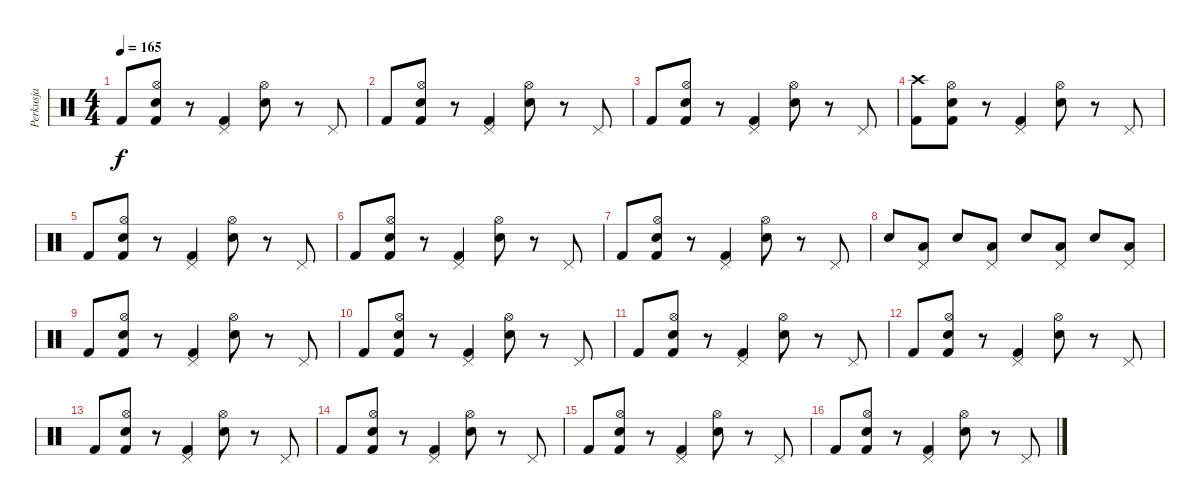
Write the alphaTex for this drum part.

\track ("Perkusja" "Perkusja") {instrument percussion}
\staff {score}
\articulation defaults
\ts (4 4)
\tempo 165
\clef neutral
\ks c "Kick (hit) 2".8{dy f}
("Hi-Hat (open)" "Electric Snare (hit)" "Kick (hit) 2").8 r.8 ("Pedal Hi-Hat (hit)" "Kick (hit) 2").4 ("Hi-Hat (open)" "Electric Snare (hit)").8 r.8 "Pedal Hi-Hat (hit)".8 |
"Kick (hit) 2".8 ("Hi-Hat (open)" "Electric Snare (hit)" "Kick (hit) 2").8 r.8 ("Pedal Hi-Hat (hit)" "Kick (hit) 2").4 ("Hi-Hat (open)" "Electric Snare (hit)").8 r.8 "Pedal Hi-Hat (hit)".8 |
"Kick (hit) 2".8 ("Hi-Hat (open)" "Electric Snare (hit)" "Kick (hit) 2").8 r.8 ("Pedal Hi-Hat (hit)" "Kick (hit) 2").4 ("Hi-Hat (open)" "Electric Snare (hit)").8 r.8 "Pedal Hi-Hat (hit)".8 |
("Crash high (hit)" "Kick (hit) 2").8 ("Hi-Hat (open)" "Electric Snare (hit)" "Kick (hit) 2").8 r.8 ("Pedal Hi-Hat (hit)" "Kick (hit) 2").4 ("Hi-Hat (open)" "Electric Snare (hit)").8 r.8 "Pedal Hi-Hat (hit)".8 |
"Kick (hit) 2".8 ("Hi-Hat (open)" "Electric Snare (hit)" "Kick (hit) 2").8 r.8 ("Pedal Hi-Hat (hit)" "Kick (hit) 2").4 ("Hi-Hat (open)" "Electric Snare (hit)").8 r.8 "Pedal Hi-Hat (hit)".8 |
"Kick (hit) 2".8 ("Hi-Hat (open)" "Electric Snare (hit)" "Kick (hit) 2").8 r.8 ("Pedal Hi-Hat (hit)" "Kick (hit) 2").4 ("Hi-Hat (open)" "Electric Snare (hit)").8 r.8 "Pedal Hi-Hat (hit)".8 |
"Kick (hit) 2".8 ("Hi-Hat (open)" "Electric Snare (hit)" "Kick (hit) 2").8 r.8 ("Pedal Hi-Hat (hit)" "Kick (hit) 2").4 ("Hi-Hat (open)" "Electric Snare (hit)").8 r.8 "Pedal Hi-Hat (hit)".8 |
"Snare (hit) 2".8 ("Low Tom (hit)" "Pedal Hi-Hat (hit)").8 "Snare (hit) 2".8 ("Low Tom (hit)" "Pedal Hi-Hat (hit)").8 "Snare (hit) 2".8 ("Low Tom (hit)" "Pedal Hi-Hat (hit)").8 "Snare (hit) 2".8 ("Low Tom (hit)" "Pedal Hi-Hat (hit)").8 |
"Kick (hit) 2".8 ("Hi-Hat (open)" "Electric Snare (hit)" "Kick (hit) 2").8 r.8 ("Pedal Hi-Hat (hit)" "Kick (hit) 2").4 ("Hi-Hat (open)" "Electric Snare (hit)").8 r.8 "Pedal Hi-Hat (hit)".8 |
"Kick (hit) 2".8 ("Hi-Hat (open)" "Electric Snare (hit)" "Kick (hit) 2").8 r.8 ("Pedal Hi-Hat (hit)" "Kick (hit) 2").4 ("Hi-Hat (open)" "Electric Snare (hit)").8 r.8 "Pedal Hi-Hat (hit)".8 |
"Kick (hit) 2".8 ("Hi-Hat (open)" "Electric Snare (hit)" "Kick (hit) 2").8 r.8 ("Pedal Hi-Hat (hit)" "Kick (hit) 2").4 ("Hi-Hat (open)" "Electric Snare (hit)").8 r.8 "Pedal Hi-Hat (hit)".8 |
"Kick (hit) 2".8 ("Hi-Hat (open)" "Electric Snare (hit)" "Kick (hit) 2").8 r.8 ("Pedal Hi-Hat (hit)" "Kick (hit) 2").4 ("Hi-Hat (open)" "Electric Snare (hit)").8 r.8 "Pedal Hi-Hat (hit)".8 |
"Kick (hit) 2".8 ("Hi-Hat (open)" "Electric Snare (hit)" "Kick (hit) 2").8 r.8 ("Pedal Hi-Hat (hit)" "Kick (hit) 2").4 ("Hi-Hat (open)" "Electric Snare (hit)").8 r.8 "Pedal Hi-Hat (hit)".8 |
"Kick (hit) 2".8 ("Hi-Hat (open)" "Electric Snare (hit)" "Kick (hit) 2").8 r.8 ("Pedal Hi-Hat (hit)" "Kick (hit) 2").4 ("Hi-Hat (open)" "Electric Snare (hit)").8 r.8 "Pedal Hi-Hat (hit)".8 |
"Kick (hit) 2".8 ("Hi-Hat (open)" "Electric Snare (hit)" "Kick (hit) 2").8 r.8 ("Pedal Hi-Hat (hit)" "Kick (hit) 2").4 ("Hi-Hat (open)" "Electric Snare (hit)").8 r.8 "Pedal Hi-Hat (hit)".8 |
"Kick (hit) 2".8 ("Hi-Hat (open)" "Electric Snare (hit)" "Kick (hit) 2").8 r.8 ("Pedal Hi-Hat (hit)" "Kick (hit) 2").4 ("Hi-Hat (open)" "Electric Snare (hit)").8 r.8 "Pedal Hi-Hat (hit)".8
